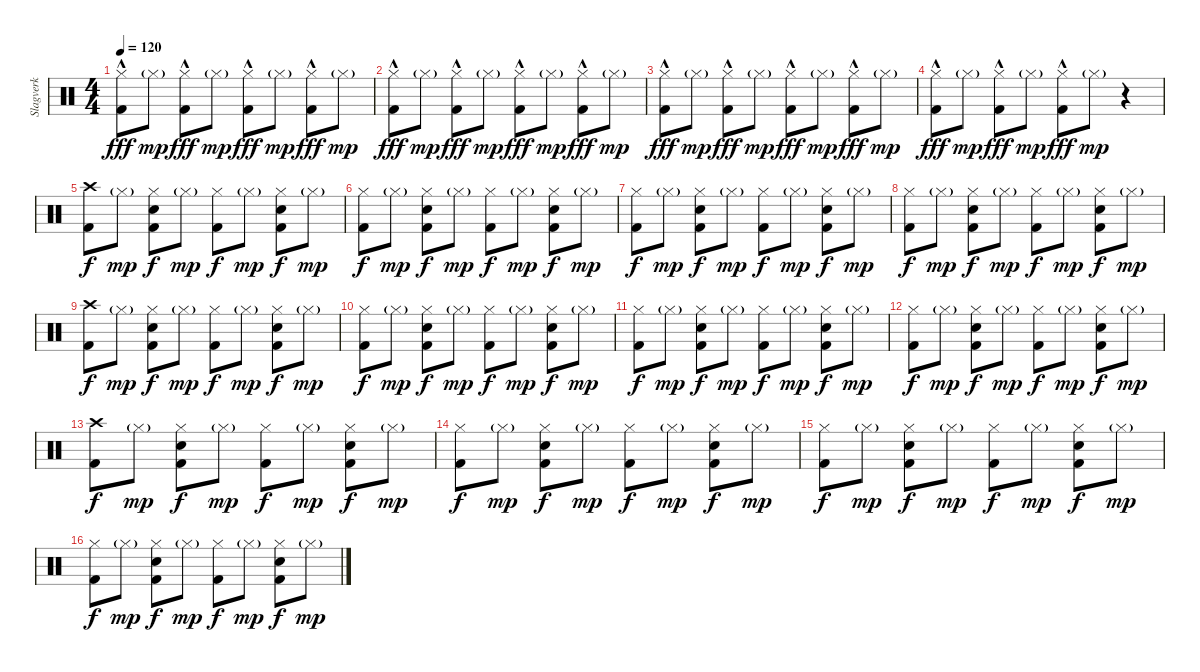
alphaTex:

\track ("Slagverk" "Slagverk") {instrument percussion}
\staff {score}
\articulation defaults
\ts (4 4)
\tempo 120
\clef neutral
\ks c
("Kick (hit) 2"{hac} "Hi-Hat (closed)").8{dy fff} "Hi-Hat (closed)"{g}.8{dy mp} ("Kick (hit) 2"{hac} "Hi-Hat (closed)").8{dy fff} "Hi-Hat (closed)"{g}.8{dy mp} ("Kick (hit) 2"{hac} "Hi-Hat (closed)").8{dy fff} "Hi-Hat (closed)"{g}.8{dy mp} ("Kick (hit) 2"{hac} "Hi-Hat (closed)").8{dy fff} "Hi-Hat (closed)"{g}.8{dy mp} |
("Kick (hit) 2"{hac} "Hi-Hat (closed)").8{dy fff} "Hi-Hat (closed)"{g}.8{dy mp} ("Kick (hit) 2"{hac} "Hi-Hat (closed)").8{dy fff} "Hi-Hat (closed)"{g}.8{dy mp} ("Kick (hit) 2"{hac} "Hi-Hat (closed)").8{dy fff} "Hi-Hat (closed)"{g}.8{dy mp} ("Kick (hit) 2"{hac} "Hi-Hat (closed)").8{dy fff} "Hi-Hat (closed)"{g}.8{dy mp} |
("Kick (hit) 2"{hac} "Hi-Hat (closed)").8{dy fff} "Hi-Hat (closed)"{g}.8{dy mp} ("Kick (hit) 2"{hac} "Hi-Hat (closed)").8{dy fff} "Hi-Hat (closed)"{g}.8{dy mp} ("Kick (hit) 2"{hac} "Hi-Hat (closed)").8{dy fff} "Hi-Hat (closed)"{g}.8{dy mp} ("Kick (hit) 2"{hac} "Hi-Hat (closed)").8{dy fff} "Hi-Hat (closed)"{g}.8{dy mp} |
("Kick (hit) 2"{hac} "Hi-Hat (closed)").8{dy fff} "Hi-Hat (closed)"{g}.8{dy mp} ("Kick (hit) 2"{hac} "Hi-Hat (closed)").8{dy fff} "Hi-Hat (closed)"{g}.8{dy mp} ("Kick (hit) 2"{hac} "Hi-Hat (closed)").8{dy fff} "Hi-Hat (closed)"{g}.8{dy mp} r.4 |
("Kick (hit) 2" "Crash high (hit)").8{dy f} "Hi-Hat (closed)"{g}.8{dy mp} ("Kick (hit) 2" "Hi-Hat (closed)" "Snare (hit) 2").8{dy f} "Hi-Hat (closed)"{g}.8{dy mp} ("Kick (hit) 2" "Hi-Hat (closed)").8{dy f} "Hi-Hat (closed)"{g}.8{dy mp} ("Kick (hit) 2" "Hi-Hat (closed)" "Snare (hit) 2").8{dy f} "Hi-Hat (closed)"{g}.8{dy mp} |
("Kick (hit) 2" "Hi-Hat (closed)").8{dy f} "Hi-Hat (closed)"{g}.8{dy mp} ("Kick (hit) 2" "Hi-Hat (closed)" "Snare (hit) 2").8{dy f} "Hi-Hat (closed)"{g}.8{dy mp} ("Kick (hit) 2" "Hi-Hat (closed)").8{dy f} "Hi-Hat (closed)"{g}.8{dy mp} ("Kick (hit) 2" "Hi-Hat (closed)" "Snare (hit) 2").8{dy f} "Hi-Hat (closed)"{g}.8{dy mp} |
("Kick (hit) 2" "Hi-Hat (closed)").8{dy f} "Hi-Hat (closed)"{g}.8{dy mp} ("Kick (hit) 2" "Hi-Hat (closed)" "Snare (hit) 2").8{dy f} "Hi-Hat (closed)"{g}.8{dy mp} ("Kick (hit) 2" "Hi-Hat (closed)").8{dy f} "Hi-Hat (closed)"{g}.8{dy mp} ("Kick (hit) 2" "Hi-Hat (closed)" "Snare (hit) 2").8{dy f} "Hi-Hat (closed)"{g}.8{dy mp} |
("Kick (hit) 2" "Hi-Hat (closed)").8{dy f} "Hi-Hat (closed)"{g}.8{dy mp} ("Kick (hit) 2" "Hi-Hat (closed)" "Snare (hit) 2").8{dy f} "Hi-Hat (closed)"{g}.8{dy mp} ("Kick (hit) 2" "Hi-Hat (closed)").8{dy f} "Hi-Hat (closed)"{g}.8{dy mp} ("Kick (hit) 2" "Hi-Hat (closed)" "Snare (hit) 2").8{dy f} "Hi-Hat (closed)"{g}.8{dy mp} |
("Kick (hit) 2" "Crash high (hit)").8{dy f} "Hi-Hat (closed)"{g}.8{dy mp} ("Kick (hit) 2" "Hi-Hat (closed)" "Snare (hit) 2").8{dy f} "Hi-Hat (closed)"{g}.8{dy mp} ("Kick (hit) 2" "Hi-Hat (closed)").8{dy f} "Hi-Hat (closed)"{g}.8{dy mp} ("Kick (hit) 2" "Hi-Hat (closed)" "Snare (hit) 2").8{dy f} "Hi-Hat (closed)"{g}.8{dy mp} |
("Kick (hit) 2" "Hi-Hat (closed)").8{dy f} "Hi-Hat (closed)"{g}.8{dy mp} ("Kick (hit) 2" "Hi-Hat (closed)" "Snare (hit) 2").8{dy f} "Hi-Hat (closed)"{g}.8{dy mp} ("Kick (hit) 2" "Hi-Hat (closed)").8{dy f} "Hi-Hat (closed)"{g}.8{dy mp} ("Kick (hit) 2" "Hi-Hat (closed)" "Snare (hit) 2").8{dy f} "Hi-Hat (closed)"{g}.8{dy mp} |
("Kick (hit) 2" "Hi-Hat (closed)").8{dy f} "Hi-Hat (closed)"{g}.8{dy mp} ("Kick (hit) 2" "Hi-Hat (closed)" "Snare (hit) 2").8{dy f} "Hi-Hat (closed)"{g}.8{dy mp} ("Kick (hit) 2" "Hi-Hat (closed)").8{dy f} "Hi-Hat (closed)"{g}.8{dy mp} ("Kick (hit) 2" "Hi-Hat (closed)" "Snare (hit) 2").8{dy f} "Hi-Hat (closed)"{g}.8{dy mp} |
("Kick (hit) 2" "Hi-Hat (closed)").8{dy f} "Hi-Hat (closed)"{g}.8{dy mp} ("Kick (hit) 2" "Hi-Hat (closed)" "Snare (hit) 2").8{dy f} "Hi-Hat (closed)"{g}.8{dy mp} ("Kick (hit) 2" "Hi-Hat (closed)").8{dy f} "Hi-Hat (closed)"{g}.8{dy mp} ("Kick (hit) 2" "Hi-Hat (closed)" "Snare (hit) 2").8{dy f} "Hi-Hat (closed)"{g}.8{dy mp} |
("Kick (hit) 2" "Crash high (hit)").8{dy f} "Hi-Hat (closed)"{g}.8{dy mp} ("Kick (hit) 2" "Hi-Hat (closed)" "Snare (hit) 2").8{dy f} "Hi-Hat (closed)"{g}.8{dy mp} ("Kick (hit) 2" "Hi-Hat (closed)").8{dy f} "Hi-Hat (closed)"{g}.8{dy mp} ("Kick (hit) 2" "Hi-Hat (closed)" "Snare (hit) 2").8{dy f} "Hi-Hat (closed)"{g}.8{dy mp} |
("Kick (hit) 2" "Hi-Hat (closed)").8{dy f} "Hi-Hat (closed)"{g}.8{dy mp} ("Kick (hit) 2" "Hi-Hat (closed)" "Snare (hit) 2").8{dy f} "Hi-Hat (closed)"{g}.8{dy mp} ("Kick (hit) 2" "Hi-Hat (closed)").8{dy f} "Hi-Hat (closed)"{g}.8{dy mp} ("Kick (hit) 2" "Hi-Hat (closed)" "Snare (hit) 2").8{dy f} "Hi-Hat (closed)"{g}.8{dy mp} |
("Kick (hit) 2" "Hi-Hat (closed)").8{dy f} "Hi-Hat (closed)"{g}.8{dy mp} ("Kick (hit) 2" "Hi-Hat (closed)" "Snare (hit) 2").8{dy f} "Hi-Hat (closed)"{g}.8{dy mp} ("Kick (hit) 2" "Hi-Hat (closed)").8{dy f} "Hi-Hat (closed)"{g}.8{dy mp} ("Kick (hit) 2" "Hi-Hat (closed)" "Snare (hit) 2").8{dy f} "Hi-Hat (closed)"{g}.8{dy mp} |
("Kick (hit) 2" "Hi-Hat (closed)").8{dy f} "Hi-Hat (closed)"{g}.8{dy mp} ("Kick (hit) 2" "Hi-Hat (closed)" "Snare (hit) 2").8{dy f} "Hi-Hat (closed)"{g}.8{dy mp} ("Kick (hit) 2" "Hi-Hat (closed)").8{dy f} "Hi-Hat (closed)"{g}.8{dy mp} ("Kick (hit) 2" "Hi-Hat (closed)" "Snare (hit) 2").8{dy f} "Hi-Hat (closed)"{g}.8{dy mp}
